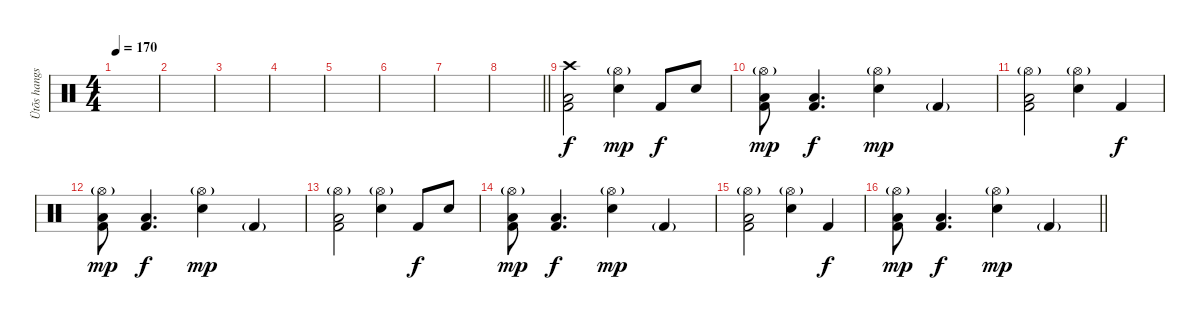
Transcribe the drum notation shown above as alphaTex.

\track ("Ütõs hangszer" "Ütõs hangs") {instrument percussion}
\staff {score}
\articulation defaults
\ts (4 4)
\tempo 170
\clef neutral
\ks c
|
|
|
|
|
|
|
\barLineRight lightlight
|
\section ("" "")
("Crash high (hit)" "Kick (hit) 2" "Low Floor Tom (hit)").2 ("Hi-Hat (open)"{g} "Electric Snare (hit)").4{dy mp} "Kick (hit) 2".8{dy f} "Electric Snare (hit)".8 |
("Hi-Hat (open)"{g} "Kick (hit) 2" "Low Floor Tom (hit)").8{dy mp} ("Kick (hit) 2" "Low Floor Tom (hit)").4{d dy f} ("Hi-Hat (open)"{g} "Electric Snare (hit)").4{dy mp} "Kick (hit) 2"{g}.4 |
("Hi-Hat (open)"{g} "Kick (hit) 2" "Low Floor Tom (hit)").2 ("Hi-Hat (open)"{g} "Electric Snare (hit)").4 "Kick (hit) 2".4{dy f} |
("Hi-Hat (open)"{g} "Kick (hit) 2" "Low Floor Tom (hit)").8{dy mp} ("Kick (hit) 2" "Low Floor Tom (hit)").4{d dy f} ("Hi-Hat (open)"{g} "Electric Snare (hit)").4{dy mp} "Kick (hit) 2"{g}.4 |
("Hi-Hat (open)"{g} "Kick (hit) 2" "Low Floor Tom (hit)").2 ("Hi-Hat (open)"{g} "Electric Snare (hit)").4 "Kick (hit) 2".8{dy f} "Electric Snare (hit)".8 |
("Hi-Hat (open)"{g} "Kick (hit) 2" "Low Floor Tom (hit)").8{dy mp} ("Kick (hit) 2" "Low Floor Tom (hit)").4{d dy f} ("Hi-Hat (open)"{g} "Electric Snare (hit)").4{dy mp} "Kick (hit) 2"{g}.4 |
("Hi-Hat (open)"{g} "Kick (hit) 2" "Low Floor Tom (hit)").2 ("Hi-Hat (open)"{g} "Electric Snare (hit)").4 "Kick (hit) 2".4{dy f} |
\barLineRight lightlight
("Hi-Hat (open)"{g} "Kick (hit) 2" "Low Floor Tom (hit)").8{dy mp} ("Kick (hit) 2" "Low Floor Tom (hit)").4{d dy f} ("Hi-Hat (open)"{g} "Electric Snare (hit)").4{dy mp} "Kick (hit) 2"{g}.4
